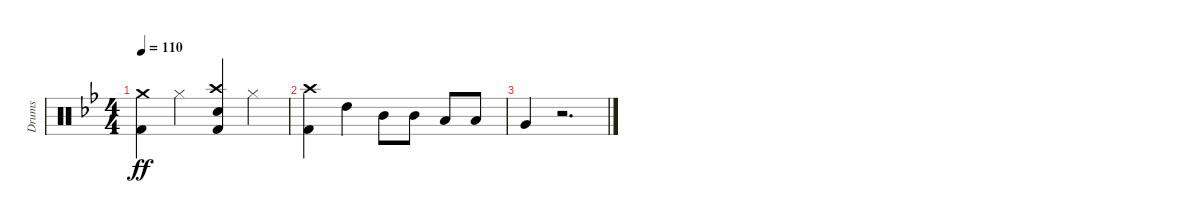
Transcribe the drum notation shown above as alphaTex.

\track ("Drums" "Drums") {instrument percussion}
\staff {score}
\articulation defaults
\ts (4 4)
\tempo 110
\clef neutral
\ks gminor
("Crash medium (hit)" "Kick (hit) 2").4{dy ff} "Hi-Hat (closed)".4 ("Crash high (hit)" "Electric Snare (hit)" "Kick (hit) 2").4 "Hi-Hat (closed)".4 |
("Crash high (hit)" "Kick (hit) 2").4 "High Tom (hit)".4 "Mid Tom (hit)".8 "Mid Tom (hit)".8 "Low Tom (hit)".8 "Low Tom (hit)".8 |
"Very Low Tom (hit)".4 r.2{d}
